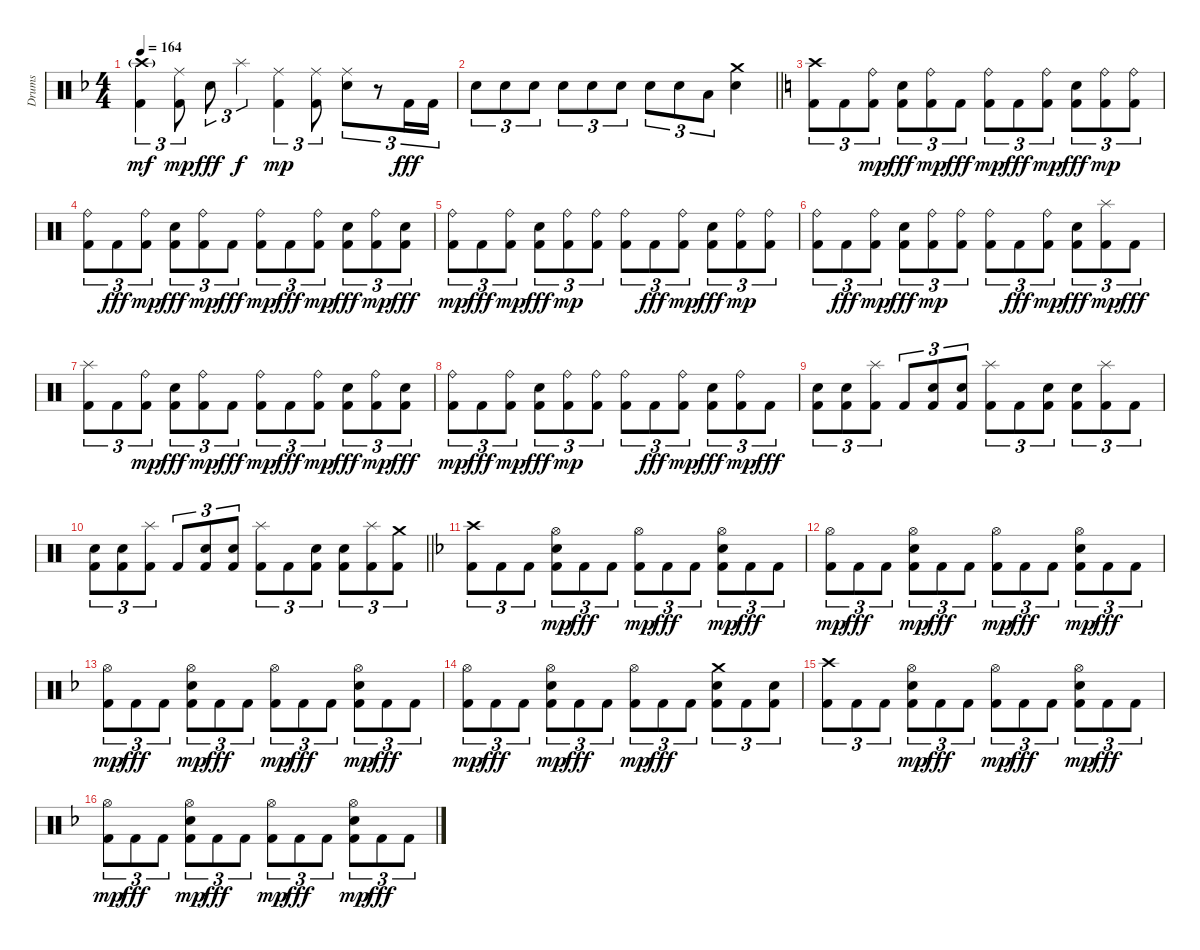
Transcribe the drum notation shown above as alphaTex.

\track ("Drums" "Drums") {instrument percussion}
\staff {score}
\articulation defaults
\ts (4 4)
\tempo 164
\clef neutral
\ks f
("Kick (hit) 2" "Crash high (hit)"{g}).4{tu (3 2) dy mf} ("Kick (hit) 2" "Ride (middle)").8{tu (3 2) dy mp} "Electric Snare (hit)".8{tu (3 2) dy fff} "Splash (hit)".4{tu (3 2) dy f} ("Kick (hit) 2" "Ride (middle)").4{tu (3 2) dy mp} ("Kick (hit) 2" "Ride (middle)").8{tu (3 2)} ("Electric Snare (hit)" "Ride (middle)").8{tu (3 2)} r.8{tu (3 2)} "Kick (hit) 2".16{tu (3 2) dy fff} "Kick (hit) 2".16{tu (3 2)} |
\barLineRight lightlight "Electric Snare (hit)".8{tu (3 2)} "Electric Snare (hit)".8{tu (3 2)} "Electric Snare (hit)".8{tu (3 2)} "Electric Snare (hit)".8{tu (3 2)} "Electric Snare (hit)".8{tu (3 2)} "Electric Snare (hit)".8{tu (3 2)} "Electric Snare (hit)".8{tu (3 2)} "Electric Snare (hit)".8{tu (3 2)} "Low Tom (hit)".8{tu (3 2)}
("Electric Snare (hit)" "Crash medium (hit)").4 |
\ks c
("Kick (hit) 2" "Crash high (hit)").8{tu (3 2)} "Kick (hit) 2".8{tu (3 2)} ("Kick (hit) 2" "Ride (bell)").8{tu (3 2) dy mp} ("Kick (hit) 2" "Electric Snare (hit)").8{tu (3 2) dy fff} ("Kick (hit) 2" "Ride (bell)").8{tu (3 2) dy mp} "Kick (hit) 2".8{tu (3 2) dy fff} ("Kick (hit) 2" "Ride (bell)").8{tu (3 2) dy mp} "Kick (hit) 2".8{tu (3 2) dy fff} ("Kick (hit) 2" "Ride (bell)").8{tu (3 2) dy mp} ("Kick (hit) 2" "Electric Snare (hit)").8{tu (3 2) dy fff} ("Kick (hit) 2" "Ride (bell)").8{tu (3 2) dy mp} ("Kick (hit) 2" "Ride (bell)").8{tu (3 2)} |
("Kick (hit) 2" "Ride (bell)").8{tu (3 2)} "Kick (hit) 2".8{tu (3 2) dy fff} ("Kick (hit) 2" "Ride (bell)").8{tu (3 2) dy mp} ("Kick (hit) 2" "Electric Snare (hit)").8{tu (3 2) dy fff} ("Kick (hit) 2" "Ride (bell)").8{tu (3 2) dy mp} "Kick (hit) 2".8{tu (3 2) dy fff} ("Kick (hit) 2" "Ride (bell)").8{tu (3 2) dy mp} "Kick (hit) 2".8{tu (3 2) dy fff} ("Kick (hit) 2" "Ride (bell)").8{tu (3 2) dy mp} ("Kick (hit) 2" "Electric Snare (hit)").8{tu (3 2) dy fff} ("Kick (hit) 2" "Ride (bell)").8{tu (3 2) dy mp} ("Kick (hit) 2" "Electric Snare (hit)").8{tu (3 2) dy fff} |
("Kick (hit) 2" "Ride (bell)").8{tu (3 2) dy mp} "Kick (hit) 2".8{tu (3 2) dy fff} ("Kick (hit) 2" "Ride (bell)").8{tu (3 2) dy mp} ("Kick (hit) 2" "Electric Snare (hit)").8{tu (3 2) dy fff} ("Kick (hit) 2" "Ride (bell)").8{tu (3 2) dy mp} ("Kick (hit) 2" "Ride (bell)").8{tu (3 2)} ("Kick (hit) 2" "Ride (bell)").8{tu (3 2)} "Kick (hit) 2".8{tu (3 2) dy fff} ("Kick (hit) 2" "Ride (bell)").8{tu (3 2) dy mp} ("Kick (hit) 2" "Electric Snare (hit)").8{tu (3 2) dy fff} ("Kick (hit) 2" "Ride (bell)").8{tu (3 2) dy mp} ("Kick (hit) 2" "Ride (bell)").8{tu (3 2)} |
("Kick (hit) 2" "Ride (bell)").8{tu (3 2)} "Kick (hit) 2".8{tu (3 2) dy fff} ("Kick (hit) 2" "Ride (bell)").8{tu (3 2) dy mp} ("Kick (hit) 2" "Electric Snare (hit)").8{tu (3 2) dy fff} ("Kick (hit) 2" "Ride (bell)").8{tu (3 2) dy mp} ("Kick (hit) 2" "Ride (bell)").8{tu (3 2)} ("Kick (hit) 2" "Ride (bell)").8{tu (3 2)} "Kick (hit) 2".8{tu (3 2) dy fff} ("Kick (hit) 2" "Ride (bell)").8{tu (3 2) dy mp} ("Kick (hit) 2" "Electric Snare (hit)").8{tu (3 2) dy fff} ("Kick (hit) 2" "Splash (hit)").8{tu (3 2) dy mp} "Kick (hit) 2".8{tu (3 2) dy fff} |
("Kick (hit) 2" "Splash (hit)").8{tu (3 2)} "Kick (hit) 2".8{tu (3 2)} ("Kick (hit) 2" "Ride (bell)").8{tu (3 2) dy mp} ("Kick (hit) 2" "Electric Snare (hit)").8{tu (3 2) dy fff} ("Kick (hit) 2" "Ride (bell)").8{tu (3 2) dy mp} "Kick (hit) 2".8{tu (3 2) dy fff} ("Kick (hit) 2" "Ride (bell)").8{tu (3 2) dy mp} "Kick (hit) 2".8{tu (3 2) dy fff} ("Kick (hit) 2" "Ride (bell)").8{tu (3 2) dy mp} ("Kick (hit) 2" "Electric Snare (hit)").8{tu (3 2) dy fff} ("Kick (hit) 2" "Ride (bell)").8{tu (3 2) dy mp} ("Kick (hit) 2" "Electric Snare (hit)").8{tu (3 2) dy fff} |
("Kick (hit) 2" "Ride (bell)").8{tu (3 2) dy mp} "Kick (hit) 2".8{tu (3 2) dy fff} ("Kick (hit) 2" "Ride (bell)").8{tu (3 2) dy mp} ("Kick (hit) 2" "Electric Snare (hit)").8{tu (3 2) dy fff} ("Kick (hit) 2" "Ride (bell)").8{tu (3 2) dy mp} ("Kick (hit) 2" "Ride (bell)").8{tu (3 2)} ("Kick (hit) 2" "Ride (bell)").8{tu (3 2)} "Kick (hit) 2".8{tu (3 2) dy fff} ("Kick (hit) 2" "Ride (bell)").8{tu (3 2) dy mp} ("Kick (hit) 2" "Electric Snare (hit)").8{tu (3 2) dy fff} ("Kick (hit) 2" "Ride (bell)").8{tu (3 2) dy mp} "Kick (hit) 2".8{tu (3 2) dy fff} |
("Kick (hit) 2" "Electric Snare (hit)").8{tu (3 2)} ("Kick (hit) 2" "Electric Snare (hit)").8{tu (3 2)} ("Kick (hit) 2" "Splash (hit)").8{tu (3 2)} "Kick (hit) 2".8{tu (3 2)} ("Kick (hit) 2" "Electric Snare (hit)").8{tu (3 2)} ("Kick (hit) 2" "Electric Snare (hit)").8{tu (3 2)} ("Kick (hit) 2" "Splash (hit)").8{tu (3 2)} "Kick (hit) 2".8{tu (3 2)} ("Kick (hit) 2" "Electric Snare (hit)").8{tu (3 2)} ("Kick (hit) 2" "Electric Snare (hit)").8{tu (3 2)} ("Kick (hit) 2" "Splash (hit)").8{tu (3 2)} "Kick (hit) 2".8{tu (3 2)} |
\barLineRight lightlight
("Kick (hit) 2" "Electric Snare (hit)").8{tu (3 2)} ("Kick (hit) 2" "Electric Snare (hit)").8{tu (3 2)} ("Kick (hit) 2" "Splash (hit)").8{tu (3 2)} "Kick (hit) 2".8{tu (3 2)} ("Kick (hit) 2" "Electric Snare (hit)").8{tu (3 2)} ("Kick (hit) 2" "Electric Snare (hit)").8{tu (3 2)} ("Kick (hit) 2" "Splash (hit)").8{tu (3 2)} "Kick (hit) 2".8{tu (3 2)} ("Kick (hit) 2" "Electric Snare (hit)").8{tu (3 2)} ("Kick (hit) 2" "Electric Snare (hit)").8{tu (3 2)} ("Kick (hit) 2" "Splash (hit)").8{tu (3 2)} ("Kick (hit) 2" "Crash medium (hit)").8{tu (3 2)} |
\ks f
("Kick (hit) 2" "Crash high (hit)").8{tu (3 2)} "Kick (hit) 2".8{tu (3 2)} "Kick (hit) 2".8{tu (3 2)} ("Kick (hit) 2" "Electric Snare (hit)" "Hi-Hat (open)").8{tu (3 2) dy mp} "Kick (hit) 2".8{tu (3 2) dy fff} "Kick (hit) 2".8{tu (3 2)} ("Kick (hit) 2" "Hi-Hat (open)").8{tu (3 2) dy mp} "Kick (hit) 2".8{tu (3 2) dy fff} "Kick (hit) 2".8{tu (3 2)} ("Kick (hit) 2" "Electric Snare (hit)" "Hi-Hat (open)").8{tu (3 2) dy mp} "Kick (hit) 2".8{tu (3 2) dy fff} "Kick (hit) 2".8{tu (3 2)} |
("Kick (hit) 2" "Hi-Hat (open)").8{tu (3 2) dy mp} "Kick (hit) 2".8{tu (3 2) dy fff} "Kick (hit) 2".8{tu (3 2)} ("Kick (hit) 2" "Electric Snare (hit)" "Hi-Hat (open)").8{tu (3 2) dy mp} "Kick (hit) 2".8{tu (3 2) dy fff} "Kick (hit) 2".8{tu (3 2)} ("Kick (hit) 2" "Hi-Hat (open)").8{tu (3 2) dy mp} "Kick (hit) 2".8{tu (3 2) dy fff} "Kick (hit) 2".8{tu (3 2)} ("Kick (hit) 2" "Electric Snare (hit)" "Hi-Hat (open)").8{tu (3 2) dy mp} "Kick (hit) 2".8{tu (3 2) dy fff} "Kick (hit) 2".8{tu (3 2)} |
("Kick (hit) 2" "Hi-Hat (open)").8{tu (3 2) dy mp} "Kick (hit) 2".8{tu (3 2) dy fff} "Kick (hit) 2".8{tu (3 2)} ("Kick (hit) 2" "Electric Snare (hit)" "Hi-Hat (open)").8{tu (3 2) dy mp} "Kick (hit) 2".8{tu (3 2) dy fff} "Kick (hit) 2".8{tu (3 2)} ("Kick (hit) 2" "Hi-Hat (open)").8{tu (3 2) dy mp} "Kick (hit) 2".8{tu (3 2) dy fff} "Kick (hit) 2".8{tu (3 2)} ("Kick (hit) 2" "Electric Snare (hit)" "Hi-Hat (open)").8{tu (3 2) dy mp} "Kick (hit) 2".8{tu (3 2) dy fff} "Kick (hit) 2".8{tu (3 2)} |
("Kick (hit) 2" "Hi-Hat (open)").8{tu (3 2) dy mp} "Kick (hit) 2".8{tu (3 2) dy fff} "Kick (hit) 2".8{tu (3 2)} ("Kick (hit) 2" "Electric Snare (hit)" "Hi-Hat (open)").8{tu (3 2) dy mp} "Kick (hit) 2".8{tu (3 2) dy fff} "Kick (hit) 2".8{tu (3 2)} ("Kick (hit) 2" "Hi-Hat (open)").8{tu (3 2) dy mp} "Kick (hit) 2".8{tu (3 2) dy fff} "Kick (hit) 2".8{tu (3 2)} ("Kick (hit) 2" "Electric Snare (hit)" "Crash medium (hit)").8{tu (3 2)} "Kick (hit) 2".8{tu (3 2)} ("Kick (hit) 2" "Electric Snare (hit)").8{tu (3 2)} |
("Kick (hit) 2" "Crash high (hit)").8{tu (3 2)} "Kick (hit) 2".8{tu (3 2)} "Kick (hit) 2".8{tu (3 2)} ("Kick (hit) 2" "Electric Snare (hit)" "Hi-Hat (open)").8{tu (3 2) dy mp} "Kick (hit) 2".8{tu (3 2) dy fff} "Kick (hit) 2".8{tu (3 2)} ("Kick (hit) 2" "Hi-Hat (open)").8{tu (3 2) dy mp} "Kick (hit) 2".8{tu (3 2) dy fff} "Kick (hit) 2".8{tu (3 2)} ("Kick (hit) 2" "Electric Snare (hit)" "Hi-Hat (open)").8{tu (3 2) dy mp} "Kick (hit) 2".8{tu (3 2) dy fff} "Kick (hit) 2".8{tu (3 2)} |
("Kick (hit) 2" "Hi-Hat (open)").8{tu (3 2) dy mp} "Kick (hit) 2".8{tu (3 2) dy fff} "Kick (hit) 2".8{tu (3 2)} ("Kick (hit) 2" "Electric Snare (hit)" "Hi-Hat (open)").8{tu (3 2) dy mp} "Kick (hit) 2".8{tu (3 2) dy fff} "Kick (hit) 2".8{tu (3 2)} ("Kick (hit) 2" "Hi-Hat (open)").8{tu (3 2) dy mp} "Kick (hit) 2".8{tu (3 2) dy fff} "Kick (hit) 2".8{tu (3 2)} ("Kick (hit) 2" "Electric Snare (hit)" "Hi-Hat (open)").8{tu (3 2) dy mp} "Kick (hit) 2".8{tu (3 2) dy fff} "Kick (hit) 2".8{tu (3 2)}
